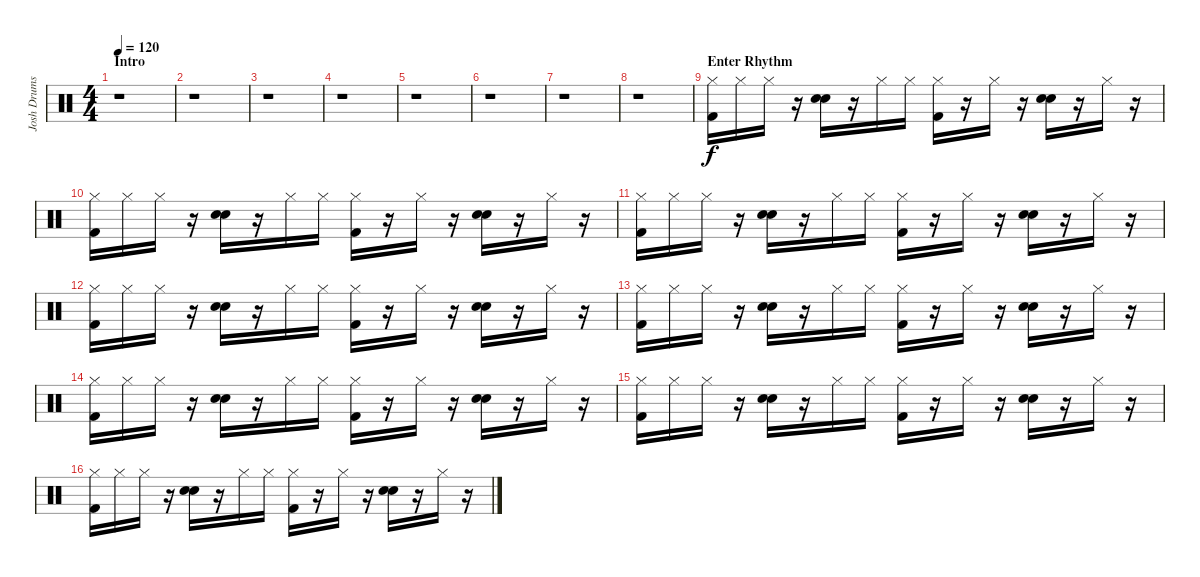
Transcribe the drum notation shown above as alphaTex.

\track ("Josh Drums" "Josh Drums") {instrument percussion}
\staff {score}
\articulation defaults
\ts (4 4)
\section ("" "Intro")
\tempo 120
\clef neutral
\ks c
r.1{dy f} |
r.1 |
r.1 |
r.1 |
r.1 |
r.1 |
r.1 |
r.1 |
\section ("" "Enter Rhythm")
("Hi-Hat (closed)" "Kick (hit) 2").16 "Hi-Hat (closed)".16 "Hi-Hat (closed)".16 r.16 ("Hand Clap (hit)" "Hand Clap (hit)").16 r.16 "Hi-Hat (closed)".16 "Hi-Hat (closed)".16 ("Hi-Hat (closed)" "Kick (hit) 2").16 r.16 "Hi-Hat (closed)".16 r.16 ("Hand Clap (hit)" "Hand Clap (hit)").16 r.16 "Hi-Hat (closed)".16 r.16 |
("Hi-Hat (closed)" "Kick (hit) 2").16 "Hi-Hat (closed)".16 "Hi-Hat (closed)".16 r.16 ("Hand Clap (hit)" "Hand Clap (hit)").16 r.16 "Hi-Hat (closed)".16 "Hi-Hat (closed)".16 ("Hi-Hat (closed)" "Kick (hit) 2").16 r.16 "Hi-Hat (closed)".16 r.16 ("Hand Clap (hit)" "Hand Clap (hit)").16 r.16 "Hi-Hat (closed)".16 r.16 |
("Hi-Hat (closed)" "Kick (hit) 2").16 "Hi-Hat (closed)".16 "Hi-Hat (closed)".16 r.16 ("Hand Clap (hit)" "Hand Clap (hit)").16 r.16 "Hi-Hat (closed)".16 "Hi-Hat (closed)".16 ("Hi-Hat (closed)" "Kick (hit) 2").16 r.16 "Hi-Hat (closed)".16 r.16 ("Hand Clap (hit)" "Hand Clap (hit)").16 r.16 "Hi-Hat (closed)".16 r.16 |
("Hi-Hat (closed)" "Kick (hit) 2").16 "Hi-Hat (closed)".16 "Hi-Hat (closed)".16 r.16 ("Hand Clap (hit)" "Hand Clap (hit)").16 r.16 "Hi-Hat (closed)".16 "Hi-Hat (closed)".16 ("Hi-Hat (closed)" "Kick (hit) 2").16 r.16 "Hi-Hat (closed)".16 r.16 ("Hand Clap (hit)" "Hand Clap (hit)").16 r.16 "Hi-Hat (closed)".16 r.16 |
("Hi-Hat (closed)" "Kick (hit) 2").16 "Hi-Hat (closed)".16 "Hi-Hat (closed)".16 r.16 ("Hand Clap (hit)" "Hand Clap (hit)").16 r.16 "Hi-Hat (closed)".16 "Hi-Hat (closed)".16 ("Hi-Hat (closed)" "Kick (hit) 2").16 r.16 "Hi-Hat (closed)".16 r.16 ("Hand Clap (hit)" "Hand Clap (hit)").16 r.16 "Hi-Hat (closed)".16 r.16 |
("Hi-Hat (closed)" "Kick (hit) 2").16 "Hi-Hat (closed)".16 "Hi-Hat (closed)".16 r.16 ("Hand Clap (hit)" "Hand Clap (hit)").16 r.16 "Hi-Hat (closed)".16 "Hi-Hat (closed)".16 ("Hi-Hat (closed)" "Kick (hit) 2").16 r.16 "Hi-Hat (closed)".16 r.16 ("Hand Clap (hit)" "Hand Clap (hit)").16 r.16 "Hi-Hat (closed)".16 r.16 |
("Hi-Hat (closed)" "Kick (hit) 2").16 "Hi-Hat (closed)".16 "Hi-Hat (closed)".16 r.16 ("Hand Clap (hit)" "Hand Clap (hit)").16 r.16 "Hi-Hat (closed)".16 "Hi-Hat (closed)".16 ("Hi-Hat (closed)" "Kick (hit) 2").16 r.16 "Hi-Hat (closed)".16 r.16 ("Hand Clap (hit)" "Hand Clap (hit)").16 r.16 "Hi-Hat (closed)".16 r.16 |
("Hi-Hat (closed)" "Kick (hit) 2").16 "Hi-Hat (closed)".16 "Hi-Hat (closed)".16 r.16 ("Hand Clap (hit)" "Hand Clap (hit)").16 r.16 "Hi-Hat (closed)".16 "Hi-Hat (closed)".16 ("Hi-Hat (closed)" "Kick (hit) 2").16 r.16 "Hi-Hat (closed)".16 r.16 ("Hand Clap (hit)" "Hand Clap (hit)").16 r.16 "Hi-Hat (closed)".16 r.16
